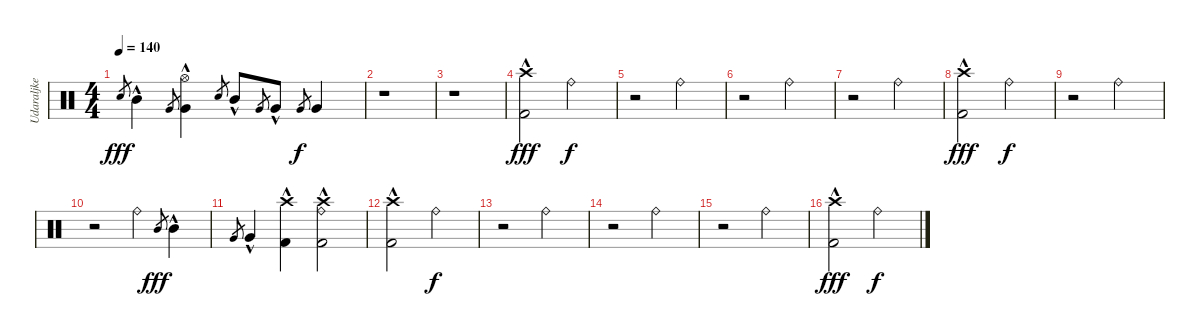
\track ("Udaraljke" "Udaraljke") {instrument percussion}
\staff {score}
\articulation defaults
\ts (4 4)
\tempo 140
\clef neutral
\ks c "Snare (hit) 2".8{gr dy fff} "Mid Tom (hit)"{hac}.4 "Very Low Tom (hit)".8{gr}
("Hi-Hat (open)" "Very Low Tom (hit)"{hac}).4 "Snare (hit) 2".8{gr} "Mid Tom (hit)"{hac}.8 "Very Low Tom (hit)".8{gr} "Very Low Tom (hit)"{hac}.8 "Very Low Tom (hit)".8{gr dy f} "Very Low Tom (hit)".4 |
r.1 |
r.1 |
("Crash high (hit)" "Kick (hit) 2"{hac}).2{dy fff} "Ride (bell)".2{dy f} |
r.2 "Ride (bell)".2 |
r.2 "Ride (bell)".2 |
r.2 "Ride (bell)".2 |
("Crash high (hit)" "Kick (hit) 2"{hac}).2{dy fff} "Ride (bell)".2{dy f} |
r.2 "Ride (bell)".2 |
r.2 "Ride (bell)".4 "Mid Tom (hit)".8{gr dy fff} "Mid Tom (hit)"{hac}.4 |
"Very Low Tom (hit)".8{gr} "Very Low Tom (hit)"{hac}.4 ("Crash high (hit)" "Kick (hit) 2"{hac}).4 ("Crash high (hit)" "Ride (bell)" "Kick (hit) 2"{hac}).2 |
("Crash high (hit)" "Kick (hit) 2"{hac}).2 "Ride (bell)".2{dy f} |
r.2 "Ride (bell)".2 |
r.2 "Ride (bell)".2 |
r.2 "Ride (bell)".2 |
("Crash high (hit)" "Kick (hit) 2"{hac}).2{dy fff} "Ride (bell)".2{dy f}
